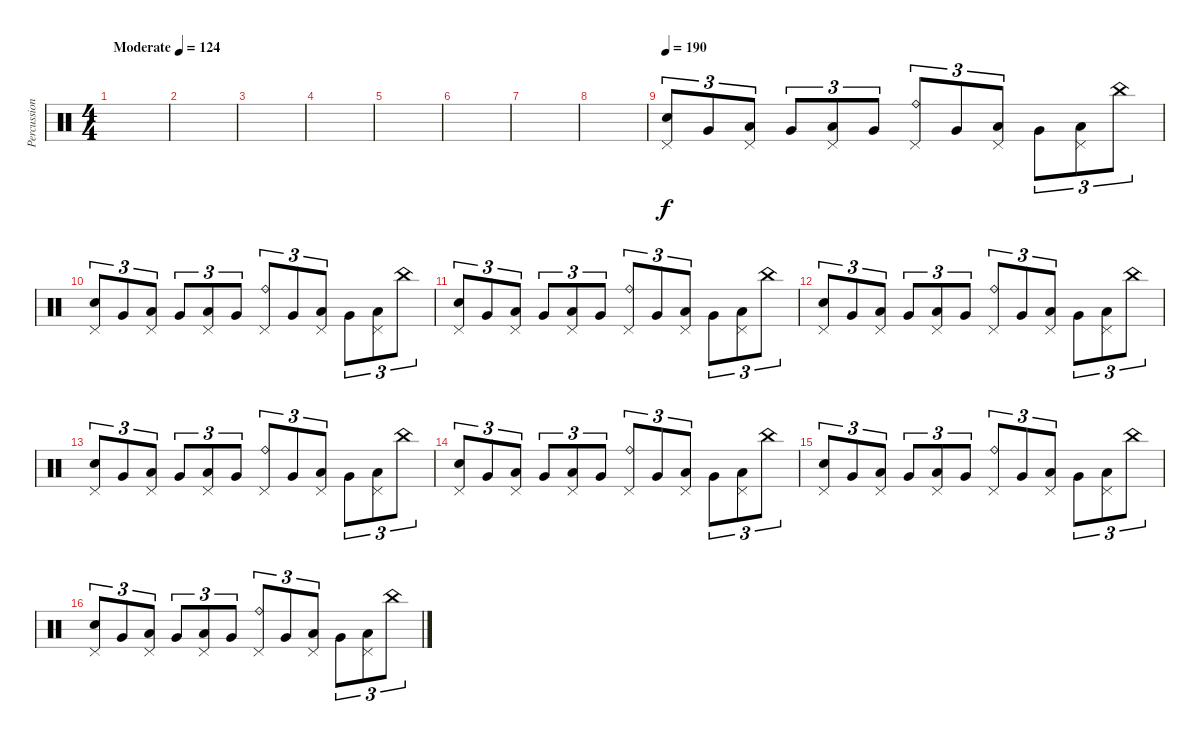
\track ("Percussion" "Percussion") {instrument percussion}
\staff {score}
\articulation defaults
\ts (4 4)
\tempo (124 "Moderate")
\tempo 190
\tempo (124 "Moderate")
\clef neutral
\ks c
|
|
|
|
|
|
|
|
\tempo 190
("Pedal Hi-Hat (hit)" "Electric Snare (hit)").8{tu (3 2) volume 2} "Very Low Tom (hit)".8{tu (3 2) volume 13} ("Pedal Hi-Hat (hit)" "Low Tom (hit)").8{tu (3 2)} "Very Low Tom (hit)".8{tu (3 2)} ("Pedal Hi-Hat (hit)" "Low Tom (hit)").8{tu (3 2)} "Very Low Tom (hit)".8{tu (3 2)} ("Ride (bell)" "Pedal Hi-Hat (hit)").8{tu (3 2)} "Very Low Tom (hit)".8{tu (3 2)} ("Pedal Hi-Hat (hit)" "Low Tom (hit)").8{tu (3 2)} "Very Low Tom (hit)".8{tu (3 2)} ("Pedal Hi-Hat (hit)" "Low Tom (hit)").8{tu (3 2)} "China (hit)".8{tu (3 2)} |
("Pedal Hi-Hat (hit)" "Electric Snare (hit)").8{tu (3 2)} "Very Low Tom (hit)".8{tu (3 2)} ("Pedal Hi-Hat (hit)" "Low Tom (hit)").8{tu (3 2)} "Very Low Tom (hit)".8{tu (3 2)} ("Pedal Hi-Hat (hit)" "Low Tom (hit)").8{tu (3 2)} "Very Low Tom (hit)".8{tu (3 2)} ("Ride (bell)" "Pedal Hi-Hat (hit)").8{tu (3 2)} "Very Low Tom (hit)".8{tu (3 2)} ("Pedal Hi-Hat (hit)" "Low Tom (hit)").8{tu (3 2)} "Very Low Tom (hit)".8{tu (3 2)} ("Pedal Hi-Hat (hit)" "Low Tom (hit)").8{tu (3 2)} "China (hit)".8{tu (3 2)} |
("Pedal Hi-Hat (hit)" "Electric Snare (hit)").8{tu (3 2)} "Very Low Tom (hit)".8{tu (3 2)} ("Pedal Hi-Hat (hit)" "Low Tom (hit)").8{tu (3 2)} "Very Low Tom (hit)".8{tu (3 2)} ("Pedal Hi-Hat (hit)" "Low Tom (hit)").8{tu (3 2)} "Very Low Tom (hit)".8{tu (3 2)} ("Ride (bell)" "Pedal Hi-Hat (hit)").8{tu (3 2)} "Very Low Tom (hit)".8{tu (3 2)} ("Pedal Hi-Hat (hit)" "Low Tom (hit)").8{tu (3 2)} "Very Low Tom (hit)".8{tu (3 2)} ("Pedal Hi-Hat (hit)" "Low Tom (hit)").8{tu (3 2)} "China (hit)".8{tu (3 2)} |
("Pedal Hi-Hat (hit)" "Electric Snare (hit)").8{tu (3 2)} "Very Low Tom (hit)".8{tu (3 2)} ("Pedal Hi-Hat (hit)" "Low Tom (hit)").8{tu (3 2)} "Very Low Tom (hit)".8{tu (3 2)} ("Pedal Hi-Hat (hit)" "Low Tom (hit)").8{tu (3 2)} "Very Low Tom (hit)".8{tu (3 2)} ("Ride (bell)" "Pedal Hi-Hat (hit)").8{tu (3 2)} "Very Low Tom (hit)".8{tu (3 2)} ("Pedal Hi-Hat (hit)" "Low Tom (hit)").8{tu (3 2)} "Very Low Tom (hit)".8{tu (3 2)} ("Pedal Hi-Hat (hit)" "Low Tom (hit)").8{tu (3 2)} "China (hit)".8{tu (3 2)} |
("Pedal Hi-Hat (hit)" "Electric Snare (hit)").8{tu (3 2)} "Very Low Tom (hit)".8{tu (3 2)} ("Pedal Hi-Hat (hit)" "Low Tom (hit)").8{tu (3 2)} "Very Low Tom (hit)".8{tu (3 2)} ("Pedal Hi-Hat (hit)" "Low Tom (hit)").8{tu (3 2)} "Very Low Tom (hit)".8{tu (3 2)} ("Ride (bell)" "Pedal Hi-Hat (hit)").8{tu (3 2)} "Very Low Tom (hit)".8{tu (3 2)} ("Pedal Hi-Hat (hit)" "Low Tom (hit)").8{tu (3 2)} "Very Low Tom (hit)".8{tu (3 2)} ("Pedal Hi-Hat (hit)" "Low Tom (hit)").8{tu (3 2)} "China (hit)".8{tu (3 2)} |
("Pedal Hi-Hat (hit)" "Electric Snare (hit)").8{tu (3 2)} "Very Low Tom (hit)".8{tu (3 2)} ("Pedal Hi-Hat (hit)" "Low Tom (hit)").8{tu (3 2)} "Very Low Tom (hit)".8{tu (3 2)} ("Pedal Hi-Hat (hit)" "Low Tom (hit)").8{tu (3 2)} "Very Low Tom (hit)".8{tu (3 2)} ("Ride (bell)" "Pedal Hi-Hat (hit)").8{tu (3 2)} "Very Low Tom (hit)".8{tu (3 2)} ("Pedal Hi-Hat (hit)" "Low Tom (hit)").8{tu (3 2)} "Very Low Tom (hit)".8{tu (3 2)} ("Pedal Hi-Hat (hit)" "Low Tom (hit)").8{tu (3 2)} "China (hit)".8{tu (3 2)} |
("Pedal Hi-Hat (hit)" "Electric Snare (hit)").8{tu (3 2)} "Very Low Tom (hit)".8{tu (3 2)} ("Pedal Hi-Hat (hit)" "Low Tom (hit)").8{tu (3 2)} "Very Low Tom (hit)".8{tu (3 2)} ("Pedal Hi-Hat (hit)" "Low Tom (hit)").8{tu (3 2)} "Very Low Tom (hit)".8{tu (3 2)} ("Ride (bell)" "Pedal Hi-Hat (hit)").8{tu (3 2)} "Very Low Tom (hit)".8{tu (3 2)} ("Pedal Hi-Hat (hit)" "Low Tom (hit)").8{tu (3 2)} "Very Low Tom (hit)".8{tu (3 2)} ("Pedal Hi-Hat (hit)" "Low Tom (hit)").8{tu (3 2)} "China (hit)".8{tu (3 2)} |
("Pedal Hi-Hat (hit)" "Electric Snare (hit)").8{tu (3 2)} "Very Low Tom (hit)".8{tu (3 2)} ("Pedal Hi-Hat (hit)" "Low Tom (hit)").8{tu (3 2)} "Very Low Tom (hit)".8{tu (3 2)} ("Pedal Hi-Hat (hit)" "Low Tom (hit)").8{tu (3 2)} "Very Low Tom (hit)".8{tu (3 2)} ("Ride (bell)" "Pedal Hi-Hat (hit)").8{tu (3 2)} "Very Low Tom (hit)".8{tu (3 2)} ("Pedal Hi-Hat (hit)" "Low Tom (hit)").8{tu (3 2)} "Very Low Tom (hit)".8{tu (3 2)} ("Pedal Hi-Hat (hit)" "Low Tom (hit)").8{tu (3 2)} "China (hit)".8{tu (3 2)}
